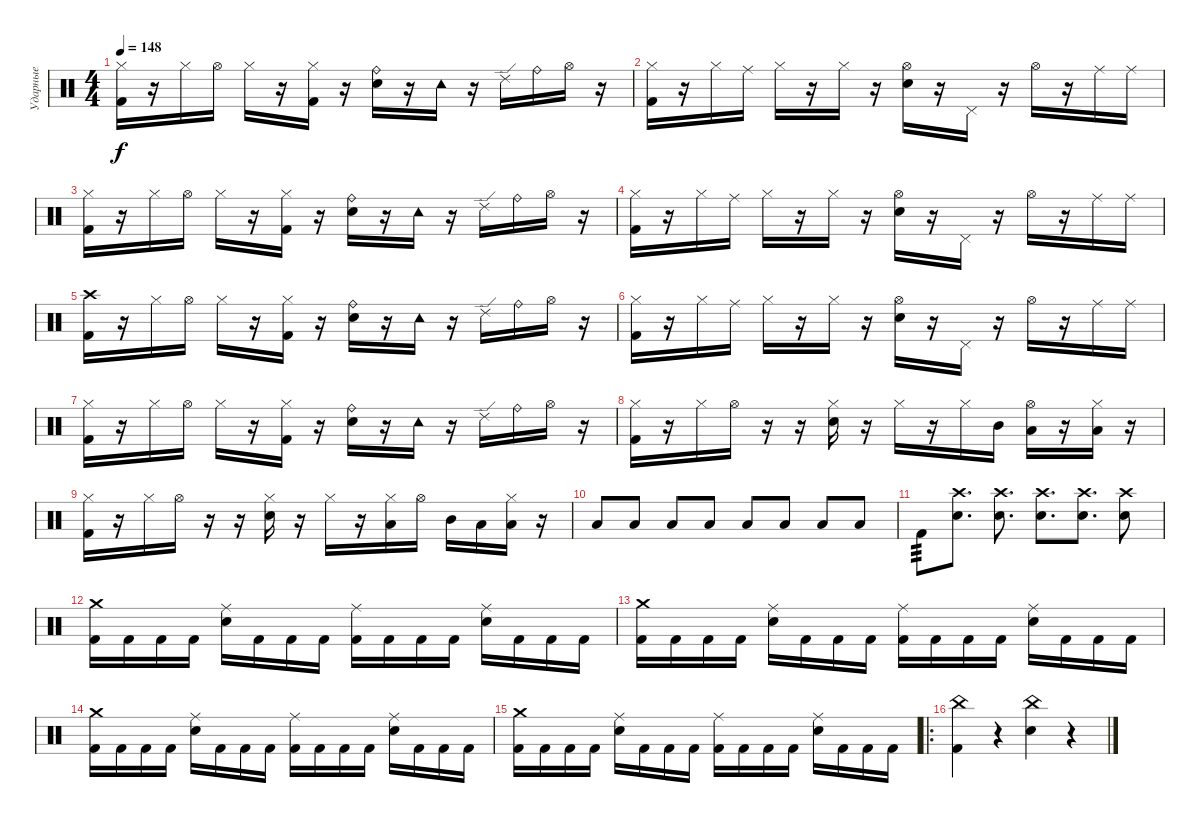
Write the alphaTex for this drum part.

\track ("Ударные" "Ударные") {instrument percussion}
\staff {score}
\articulation defaults
\ts (4 4)
\tempo 148
\clef neutral
\ks c
("Hi-Hat (closed)" "Kick (hit) 2").16{dy f} r.16 "Hi-Hat (closed)".16 "Hi-Hat (open)".16 "Hi-Hat (closed)".16 r.16 ("Hi-Hat (closed)" "Kick (hit) 2").16 r.16 ("Ride (bell)" "Electric Snare (hit)").16 r.16 "Tambourine (hit)".16 r.16 "Ride (edge) 2".16 "Ride (bell)".16 "Hi-Hat (open)".16 r.16 |
("Hi-Hat (closed)" "Kick (hit) 2").16 r.16 "Hi-Hat (closed)".16 "Ride (middle)".16 "Hi-Hat (closed)".16 r.16 "Hi-Hat (closed)".16 r.16 ("Hi-Hat (open)" "Electric Snare (hit)").16 r.16 "Pedal Hi-Hat (hit)".16 r.16 "Hi-Hat (open)".16 r.16 "Ride (middle)".16 "Ride (middle)".16 |
("Hi-Hat (closed)" "Kick (hit) 2").16 r.16 "Hi-Hat (closed)".16 "Hi-Hat (open)".16 "Hi-Hat (closed)".16 r.16 ("Hi-Hat (closed)" "Kick (hit) 2").16 r.16 ("Ride (bell)" "Electric Snare (hit)").16 r.16 "Tambourine (hit)".16 r.16 "Ride (edge) 2".16 "Ride (bell)".16 "Hi-Hat (open)".16 r.16 |
("Hi-Hat (closed)" "Kick (hit) 2").16 r.16 "Hi-Hat (closed)".16 "Ride (middle)".16 "Hi-Hat (closed)".16 r.16 "Hi-Hat (closed)".16 r.16 ("Hi-Hat (open)" "Electric Snare (hit)").16 r.16 "Pedal Hi-Hat (hit)".16 r.16 "Hi-Hat (open)".16 r.16 "Ride (middle)".16 "Ride (middle)".16 |
("Crash high (hit)" "Kick (hit) 2").16 r.16 "Hi-Hat (closed)".16 "Hi-Hat (open)".16 "Hi-Hat (closed)".16 r.16 ("Hi-Hat (closed)" "Kick (hit) 2").16 r.16 ("Ride (bell)" "Electric Snare (hit)").16 r.16 "Tambourine (hit)".16 r.16 "Ride (edge) 2".16 "Ride (bell)".16 "Hi-Hat (open)".16 r.16 |
("Hi-Hat (closed)" "Kick (hit) 2").16 r.16 "Hi-Hat (closed)".16 "Ride (middle)".16 "Hi-Hat (closed)".16 r.16 "Hi-Hat (closed)".16 r.16 ("Hi-Hat (open)" "Electric Snare (hit)").16 r.16 "Pedal Hi-Hat (hit)".16 r.16 "Hi-Hat (open)".16 r.16 "Ride (middle)".16 "Ride (middle)".16 |
("Hi-Hat (closed)" "Kick (hit) 2").16 r.16 "Hi-Hat (closed)".16 "Hi-Hat (open)".16 "Hi-Hat (closed)".16 r.16 ("Hi-Hat (closed)" "Kick (hit) 2").16 r.16 ("Ride (bell)" "Electric Snare (hit)").16 r.16 "Tambourine (hit)".16 r.16 "Ride (edge) 2".16 "Ride (bell)".16 "Hi-Hat (open)".16 r.16 |
("Hi-Hat (closed)" "Kick (hit) 2").16 r.16 "Hi-Hat (closed)".16 "Hi-Hat (open)".16 r.16 r.16 ("Hi-Hat (closed)" "Electric Snare (hit)").16 r.16 "Hi-Hat (closed)".16 r.16 "Hi-Hat (closed)".16 "Mid Tom (hit)".16 ("Hi-Hat (open)" "Low Tom (hit)").16 r.16 ("Hi-Hat (closed)" "Low Tom (hit)").16 r.16 |
("Hi-Hat (closed)" "Kick (hit) 2").16 r.16 "Hi-Hat (closed)".16 "Hi-Hat (open)".16 r.16 r.16 ("Hi-Hat (closed)" "Electric Snare (hit)").16 r.16 "Hi-Hat (closed)".16 r.16 ("Hi-Hat (closed)" "Low Tom (hit)").16 "Hi-Hat (open)".16 "Mid Tom (hit)".16 "Low Tom (hit)".16 ("Hi-Hat (closed)" "Low Tom (hit)").16 r.16 |
"Low Tom (hit)".8 "Low Tom (hit)".8 "Low Tom (hit)".8 "Low Tom (hit)".8 "Low Tom (hit)".8 "Low Tom (hit)".8 "Low Tom (hit)".8 "Low Tom (hit)".8 |
"Kick (hit) 2".8{tp 3} ("Crash high (hit)" "Electric Snare (hit)").8{d} ("Crash high (hit)" "Electric Snare (hit)").8{d} ("Crash high (hit)" "Electric Snare (hit)").8{d} ("Crash high (hit)" "Electric Snare (hit)").8{d} ("Crash high (hit)" "Electric Snare (hit)").8 |
("Crash medium (hit)" "Kick (hit) 2").16 "Kick (hit) 2".16 "Kick (hit) 2".16 "Kick (hit) 2".16 ("Ride (middle)" "Electric Snare (hit)").16 "Kick (hit) 2".16 "Kick (hit) 2".16 "Kick (hit) 2".16 ("Ride (middle)" "Kick (hit) 2").16 "Kick (hit) 2".16 "Kick (hit) 2".16 "Kick (hit) 2".16 ("Ride (middle)" "Electric Snare (hit)").16 "Kick (hit) 2".16 "Kick (hit) 2".16 "Kick (hit) 2".16 |
("Crash medium (hit)" "Kick (hit) 2").16 "Kick (hit) 2".16 "Kick (hit) 2".16 "Kick (hit) 2".16 ("Ride (middle)" "Electric Snare (hit)").16 "Kick (hit) 2".16 "Kick (hit) 2".16 "Kick (hit) 2".16 ("Ride (middle)" "Kick (hit) 2").16 "Kick (hit) 2".16 "Kick (hit) 2".16 "Kick (hit) 2".16 ("Ride (middle)" "Electric Snare (hit)").16 "Kick (hit) 2".16 "Kick (hit) 2".16 "Kick (hit) 2".16 |
("Crash medium (hit)" "Kick (hit) 2").16 "Kick (hit) 2".16 "Kick (hit) 2".16 "Kick (hit) 2".16 ("Ride (middle)" "Electric Snare (hit)").16 "Kick (hit) 2".16 "Kick (hit) 2".16 "Kick (hit) 2".16 ("Ride (middle)" "Kick (hit) 2").16 "Kick (hit) 2".16 "Kick (hit) 2".16 "Kick (hit) 2".16 ("Ride (middle)" "Electric Snare (hit)").16 "Kick (hit) 2".16 "Kick (hit) 2".16 "Kick (hit) 2".16 |
("Crash medium (hit)" "Kick (hit) 2").16 "Kick (hit) 2".16 "Kick (hit) 2".16 "Kick (hit) 2".16 ("Ride (middle)" "Electric Snare (hit)").16 "Kick (hit) 2".16 "Kick (hit) 2".16 "Kick (hit) 2".16 ("Ride (middle)" "Kick (hit) 2").16 "Kick (hit) 2".16 "Kick (hit) 2".16 "Kick (hit) 2".16 ("Ride (middle)" "Electric Snare (hit)").16 "Kick (hit) 2".16 "Kick (hit) 2".16 "Kick (hit) 2".16 |
\ro
("China (hit)" "Kick (hit) 2").4 r.4 ("China (hit)" "Electric Snare (hit)").4 r.4
